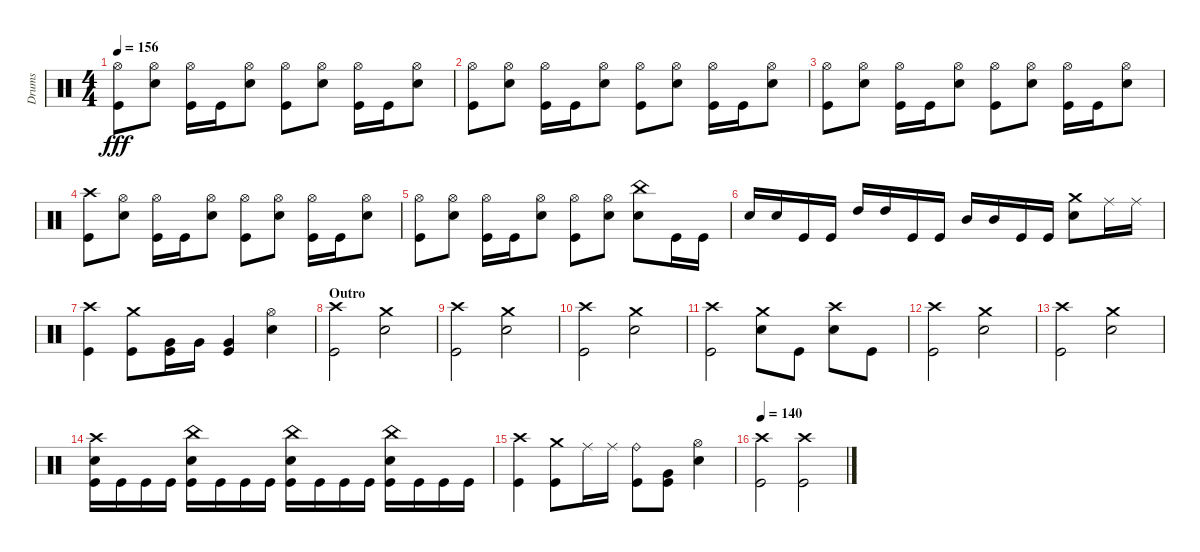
\track ("Drums" "Drums") {instrument percussion}
\staff {score}
\articulation defaults
\ts (4 4)
\tempo 156
\clef neutral
\ks aminor
("Kick (hit)" "Hi-Hat (open)").8{dy fff} ("Hi-Hat (open)" "Snare (hit) 2").8 ("Hi-Hat (open)" "Kick (hit)").16 "Kick (hit)".16 ("Snare (hit) 2" "Hi-Hat (open)").8 ("Hi-Hat (open)" "Kick (hit)").8 ("Snare (hit) 2" "Hi-Hat (open)").8 ("Hi-Hat (open)" "Kick (hit)").16 "Kick (hit)".16 ("Snare (hit) 2" "Hi-Hat (open)").8 |
("Hi-Hat (open)" "Kick (hit)").8 ("Hi-Hat (open)" "Snare (hit) 2").8 ("Hi-Hat (open)" "Kick (hit)").16 "Kick (hit)".16 ("Hi-Hat (open)" "Snare (hit) 2").8 ("Kick (hit)" "Hi-Hat (open)").8 ("Snare (hit) 2" "Hi-Hat (open)").8 ("Hi-Hat (open)" "Kick (hit)").16 "Kick (hit)".16 ("Hi-Hat (open)" "Snare (hit) 2").8 |
("Hi-Hat (open)" "Kick (hit)").8 ("Snare (hit) 2" "Hi-Hat (open)").8 ("Hi-Hat (open)" "Kick (hit)").16 "Kick (hit)".16 ("Snare (hit) 2" "Hi-Hat (open)").8 ("Kick (hit)" "Hi-Hat (open)").8 ("Snare (hit) 2" "Hi-Hat (open)").8 ("Kick (hit)" "Hi-Hat (open)").16 "Kick (hit)".16 ("Snare (hit) 2" "Hi-Hat (open)").8 |
("Crash high (hit)" "Kick (hit)").8 ("Hi-Hat (open)" "Snare (hit) 2").8 ("Kick (hit)" "Hi-Hat (open)").16 "Kick (hit)".16 ("Hi-Hat (open)" "Snare (hit) 2").8 ("Kick (hit)" "Hi-Hat (open)").8 ("Snare (hit) 2" "Hi-Hat (open)").8 ("Kick (hit)" "Hi-Hat (open)").16 "Kick (hit)".16 ("Hi-Hat (open)" "Snare (hit) 2").8 |
("Kick (hit)" "Hi-Hat (open)").8 ("Snare (hit) 2" "Hi-Hat (open)").8 ("Kick (hit)" "Hi-Hat (open)").16 "Kick (hit)".16 ("Snare (hit) 2" "Hi-Hat (open)").8 ("Kick (hit)" "Hi-Hat (open)").8 ("Snare (hit) 2" "Hi-Hat (open)").8 ("China (hit)" "Snare (hit) 2").8 "Kick (hit)".16 "Kick (hit)".16 |
"Snare (hit) 2".16 "Snare (hit) 2".16 "Kick (hit)".16 "Kick (hit)".16 "High Tom (hit)".16 "High Tom (hit)".16 "Kick (hit)".16 "Kick (hit)".16 "Mid Tom (hit)".16 "Mid Tom (hit)".16 "Kick (hit)".16 "Kick (hit)".16 ("Crash medium (hit)" "Snare (hit) 2").8 "Ride (middle)".16 "Ride (middle)".16 |
("Kick (hit)" "Crash high (hit)").4 ("Kick (hit)" "Crash medium (hit)").8 ("Kick (hit)" "Very Low Tom (hit)").16 "Very Low Tom (hit)".16 ("Very Low Tom (hit)" "Kick (hit)").4 ("Hi-Hat (open)" "Snare (hit) 2").4 |
\section ("" "Outro")
("Kick (hit)" "Crash high (hit)").2 ("Snare (hit) 2" "Crash medium (hit)").2 |
("Kick (hit)" "Crash high (hit)").2 ("Crash medium (hit)" "Snare (hit) 2").2 |
("Crash high (hit)" "Kick (hit)").2 ("Snare (hit) 2" "Crash medium (hit)").2 |
("Crash high (hit)" "Kick (hit)").2 ("Snare (hit) 2" "Crash medium (hit)").8 "Kick (hit)".8 ("Snare (hit) 2" "Crash high (hit)").8 "Kick (hit)".8 |
("Kick (hit)" "Crash high (hit)").2 ("Snare (hit) 2" "Crash medium (hit)").2 |
("Crash high (hit)" "Kick (hit)").2 ("Snare (hit) 2" "Crash medium (hit)").2 |
("Kick (hit)" "Snare (hit) 2" "Crash high (hit)").16 "Kick (hit)".16 "Kick (hit)".16 "Kick (hit)".16 ("Kick (hit)" "Snare (hit) 2" "China (hit)").16 "Kick (hit)".16 "Kick (hit)".16 "Kick (hit)".16 ("Snare (hit) 2" "Kick (hit)" "China (hit)").16 "Kick (hit)".16 "Kick (hit)".16 "Kick (hit)".16 ("Snare (hit) 2" "China (hit)" "Kick (hit)").16 "Kick (hit)".16 "Kick (hit)".16 "Kick (hit)".16 |
("Kick (hit)" "Crash high (hit)").4 ("Kick (hit)" "Crash medium (hit)").8 "Ride (middle)".16 "Ride (middle)".16 ("Kick (hit)" "Ride (bell)").8 ("Very Low Tom (hit)" "Kick (hit)").8 ("Hi-Hat (open)" "Snare (hit) 2").4 |
\tempo 140
("Crash high (hit)" "Kick (hit)").2 ("Kick (hit)" "Crash high (hit)").2
